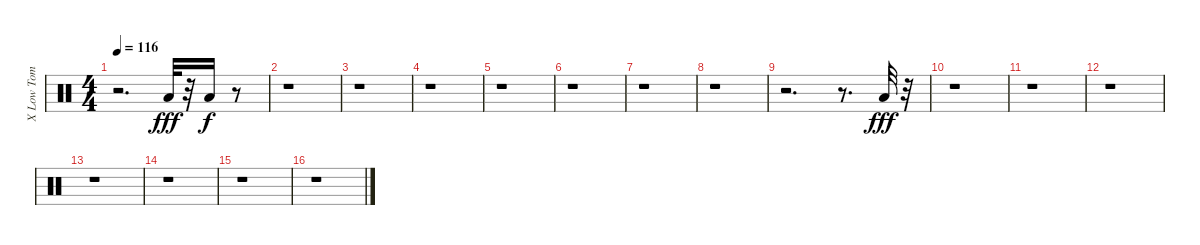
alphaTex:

\track ("X Low Tom           " "X Low Tom ") {instrument percussion}
\staff {score}
\articulation defaults
\ts (4 4)
\tempo 116
\clef neutral
\ks c
r.2{d dy f} "Low Floor Tom (hit)".32{dy fff} r.32 "Low Floor Tom (hit)".16{dy f} r.8 |
r.1 |
r.1 |
r.1 |
r.1 |
r.1 |
r.1 |
r.1 |
r.2{d} r.8{d} "Low Floor Tom (hit)".32{dy fff} r.32 |
r.1 |
r.1 |
r.1 |
r.1 |
r.1 |
r.1 |
r.1
